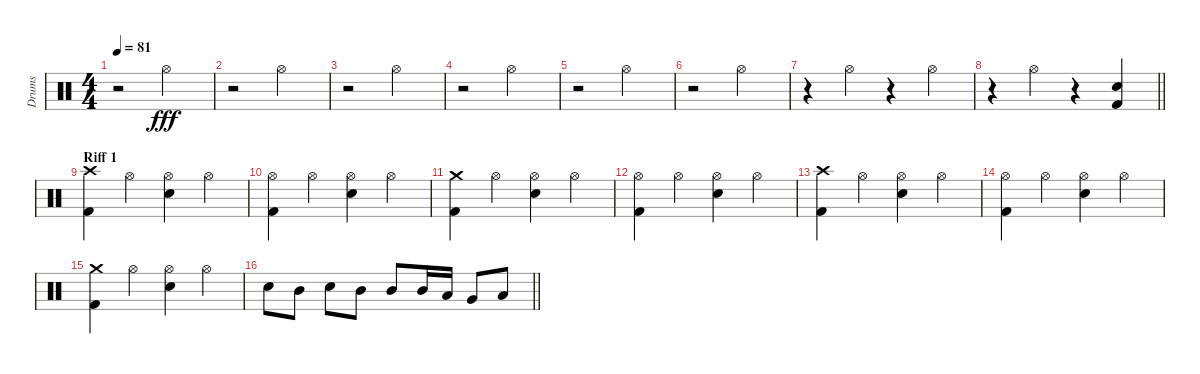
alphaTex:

\track ("Drums" "Drums") {instrument percussion}
\staff {score}
\articulation defaults
\ts (4 4)
\tempo 81
\clef neutral
\ks c
r.2{dy fff} "Hi-Hat (open)".2 |
r.2 "Hi-Hat (open)".2 |
r.2 "Hi-Hat (open)".2 |
r.2 "Hi-Hat (open)".2 |
r.2 "Hi-Hat (open)".2 |
r.2 "Hi-Hat (open)".2 |
r.4 "Hi-Hat (open)".4 r.4 "Hi-Hat (open)".4 |
\barLineRight lightlight
r.4 "Hi-Hat (open)".4 r.4 ("Electric Snare (hit)" "Kick (hit) 2").4 |
\section ("" "Riff 1")
("Crash high (hit)" "Kick (hit) 2").4 "Hi-Hat (open)".4 ("Hi-Hat (open)" "Electric Snare (hit)").4 "Hi-Hat (open)".4 |
("Hi-Hat (open)" "Kick (hit) 2").4 "Hi-Hat (open)".4 ("Hi-Hat (open)" "Electric Snare (hit)").4 "Hi-Hat (open)".4 |
("Crash medium (hit)" "Kick (hit) 2").4 "Hi-Hat (open)".4 ("Hi-Hat (open)" "Electric Snare (hit)").4 "Hi-Hat (open)".4 |
("Hi-Hat (open)" "Kick (hit) 2").4 "Hi-Hat (open)".4 ("Hi-Hat (open)" "Electric Snare (hit)").4 "Hi-Hat (open)".4 |
("Crash high (hit)" "Kick (hit) 2").4 "Hi-Hat (open)".4 ("Hi-Hat (open)" "Electric Snare (hit)").4 "Hi-Hat (open)".4 |
("Hi-Hat (open)" "Kick (hit) 2").4 "Hi-Hat (open)".4 ("Hi-Hat (open)" "Electric Snare (hit)").4 "Hi-Hat (open)".4 |
("Crash medium (hit)" "Kick (hit) 2").4 "Hi-Hat (open)".4 ("Hi-Hat (open)" "Electric Snare (hit)").4 "Hi-Hat (open)".4 |
\barLineRight lightlight "Electric Snare (hit)".8 "Mid Tom (hit)".8 "Electric Snare (hit)".8 "Mid Tom (hit)".8 "Mid Tom (hit)".8 "Mid Tom (hit)".16 "Low Tom (hit)".16 "Very Low Tom (hit)".8 "Low Floor Tom (hit)".8
